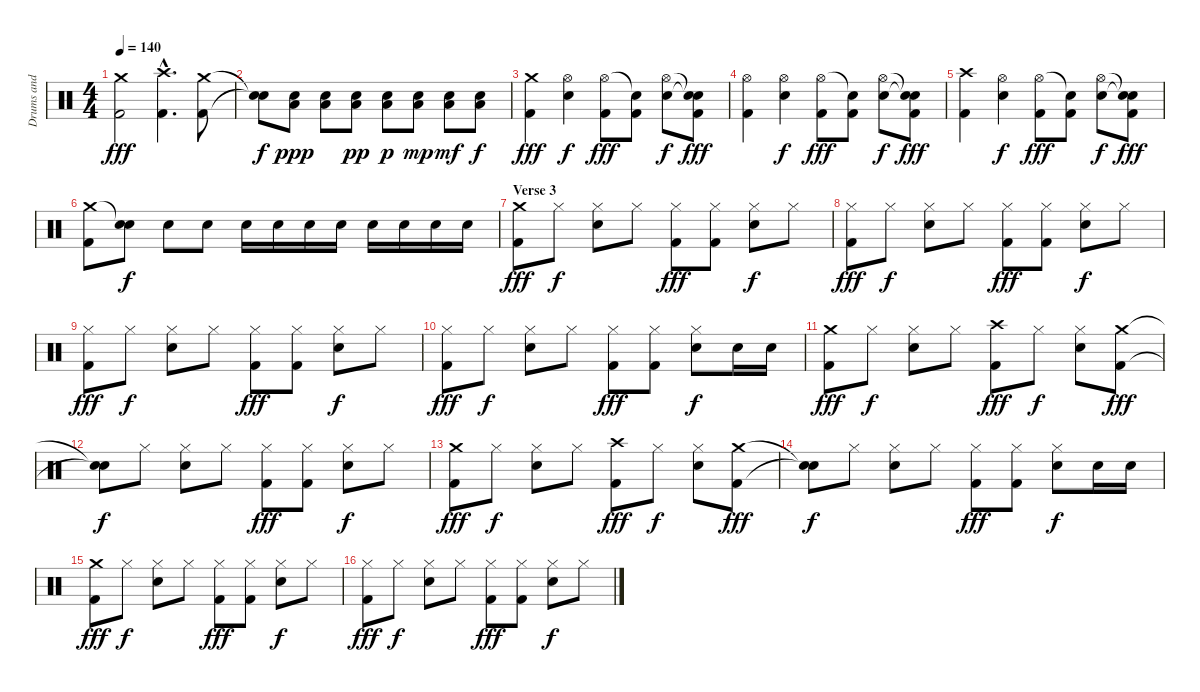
\track ("Drums and Percussion" "Drums and ") {instrument percussion}
\staff {score}
\articulation defaults
\ts (4 4)
\tempo 140
\clef neutral
\ks c
("Crash medium (hit)" "Kick (hit) 2").2{dy fff} ("Crash high (hit)"{hac} "Kick (hit) 2"{hac}).4{d} ("Crash medium (hit)" "Kick (hit) 2").8 |
("Snare (hit)"{t} "Snare (hit)"{t}).8{dy f} ("Snare (hit) 2" "Low Floor Tom (hit)").8{dy ppp} ("Snare (hit) 2" "Low Floor Tom (hit)").8 ("Snare (hit) 2" "Low Floor Tom (hit)").8{dy pp} ("Snare (hit) 2" "Low Floor Tom (hit)").8{dy p} ("Snare (hit) 2" "Low Floor Tom (hit)").8{dy mp} ("Snare (hit) 2" "Low Floor Tom (hit)").8{dy mf} ("Snare (hit) 2" "Low Floor Tom (hit)").8{dy f} |
("Crash medium (hit)" "Kick (hit) 2").4{dy fff} ("Hi-Hat (open)" "Snare (hit) 2").4{dy f} ("Hi-Hat (open)" "Kick (hit) 2").8{dy fff} ("Snare (hit)"{t} "Kick (hit) 2").8 ("Hi-Hat (open)" "Snare (hit) 2").8{dy f} ("Snare (hit)"{t} "Snare (hit)"{t} "Kick (hit) 2").8{dy fff} |
("Hi-Hat (open)" "Kick (hit) 2").4 ("Hi-Hat (open)" "Snare (hit) 2").4{dy f} ("Hi-Hat (open)" "Kick (hit) 2").8{dy fff} ("Snare (hit)"{t} "Kick (hit) 2").8 ("Hi-Hat (open)" "Snare (hit) 2").8{dy f} ("Snare (hit)"{t} "Snare (hit)"{t} "Kick (hit) 2").8{dy fff} |
("Crash high (hit)" "Kick (hit) 2").4 ("Hi-Hat (open)" "Snare (hit) 2").4{dy f} ("Hi-Hat (open)" "Kick (hit) 2").8{dy fff} ("Snare (hit)"{t} "Kick (hit) 2").8 ("Hi-Hat (open)" "Snare (hit) 2").8{dy f} ("Snare (hit)"{t} "Snare (hit)"{t} "Kick (hit) 2").8{dy fff} |
("Crash medium (hit)" "Kick (hit) 2").8 ("Snare (hit)"{t} "Snare (hit) 2").8{dy f} "Snare (hit) 2".8 "Snare (hit) 2".8 "Snare (hit) 2".16 "Snare (hit) 2".16 "Snare (hit) 2".16 "Snare (hit) 2".16 "Snare (hit) 2".16 "Snare (hit) 2".16 "Snare (hit) 2".16 "Snare (hit) 2".16 |
\section ("" "Verse 3")
("Crash medium (hit)" "Kick (hit) 2").8{dy fff} "Hi-Hat (closed)".8{dy f} ("Hi-Hat (closed)" "Snare (hit) 2").8 "Hi-Hat (closed)".8 ("Hi-Hat (closed)" "Kick (hit) 2").8{dy fff} ("Hi-Hat (closed)" "Kick (hit) 2").8 ("Hi-Hat (closed)" "Snare (hit) 2").8{dy f} "Hi-Hat (closed)".8 |
("Hi-Hat (closed)" "Kick (hit) 2").8{dy fff} "Hi-Hat (closed)".8{dy f} ("Hi-Hat (closed)" "Snare (hit) 2").8 "Hi-Hat (closed)".8 ("Hi-Hat (closed)" "Kick (hit) 2").8{dy fff} ("Hi-Hat (closed)" "Kick (hit) 2").8 ("Hi-Hat (closed)" "Snare (hit) 2").8{dy f} "Hi-Hat (closed)".8 |
("Hi-Hat (closed)" "Kick (hit) 2").8{dy fff} "Hi-Hat (closed)".8{dy f} ("Hi-Hat (closed)" "Snare (hit) 2").8 "Hi-Hat (closed)".8 ("Hi-Hat (closed)" "Kick (hit) 2").8{dy fff} ("Hi-Hat (closed)" "Kick (hit) 2").8 ("Hi-Hat (closed)" "Snare (hit) 2").8{dy f} "Hi-Hat (closed)".8 |
("Hi-Hat (closed)" "Kick (hit) 2").8{dy fff} "Hi-Hat (closed)".8{dy f} ("Hi-Hat (closed)" "Snare (hit) 2").8 "Hi-Hat (closed)".8 ("Hi-Hat (closed)" "Kick (hit) 2").8{dy fff} ("Hi-Hat (closed)" "Kick (hit) 2").8 ("Hi-Hat (closed)" "Snare (hit) 2").8{dy f} "Snare (hit) 2".16 "Snare (hit) 2".16 |
("Crash medium (hit)" "Kick (hit) 2").8{dy fff} "Hi-Hat (closed)".8{dy f} ("Hi-Hat (closed)" "Snare (hit) 2").8 "Hi-Hat (closed)".8 ("Crash high (hit)" "Kick (hit) 2").8{dy fff} "Hi-Hat (closed)".8{dy f} ("Hi-Hat (closed)" "Snare (hit) 2").8 ("Crash medium (hit)" "Kick (hit) 2").8{dy fff} |
("Snare (hit)"{t} "Snare (hit)"{t}).8{dy f} "Hi-Hat (closed)".8 ("Hi-Hat (closed)" "Snare (hit) 2").8 "Hi-Hat (closed)".8 ("Hi-Hat (closed)" "Kick (hit) 2").8{dy fff} ("Hi-Hat (closed)" "Kick (hit) 2").8 ("Hi-Hat (closed)" "Snare (hit) 2").8{dy f} "Hi-Hat (closed)".8 |
("Crash medium (hit)" "Kick (hit) 2").8{dy fff} "Hi-Hat (closed)".8{dy f} ("Hi-Hat (closed)" "Snare (hit) 2").8 "Hi-Hat (closed)".8 ("Crash high (hit)" "Kick (hit) 2").8{dy fff} "Hi-Hat (closed)".8{dy f} ("Hi-Hat (closed)" "Snare (hit) 2").8 ("Crash medium (hit)" "Kick (hit) 2").8{dy fff} |
("Snare (hit)"{t} "Snare (hit)"{t}).8{dy f} "Hi-Hat (closed)".8 ("Hi-Hat (closed)" "Snare (hit) 2").8 "Hi-Hat (closed)".8 ("Hi-Hat (closed)" "Kick (hit) 2").8{dy fff} ("Hi-Hat (closed)" "Kick (hit) 2").8 ("Hi-Hat (closed)" "Snare (hit) 2").8{dy f} "Snare (hit) 2".16 "Snare (hit) 2".16 |
("Crash medium (hit)" "Kick (hit) 2").8{dy fff} "Hi-Hat (closed)".8{dy f} ("Hi-Hat (closed)" "Snare (hit) 2").8 "Hi-Hat (closed)".8 ("Hi-Hat (closed)" "Kick (hit) 2").8{dy fff} ("Hi-Hat (closed)" "Kick (hit) 2").8 ("Hi-Hat (closed)" "Snare (hit) 2").8{dy f} "Hi-Hat (closed)".8 |
("Hi-Hat (closed)" "Kick (hit) 2").8{dy fff} "Hi-Hat (closed)".8{dy f} ("Hi-Hat (closed)" "Snare (hit) 2").8 "Hi-Hat (closed)".8 ("Hi-Hat (closed)" "Kick (hit) 2").8{dy fff} ("Hi-Hat (closed)" "Kick (hit) 2").8 ("Hi-Hat (closed)" "Snare (hit) 2").8{dy f} "Hi-Hat (closed)".8
